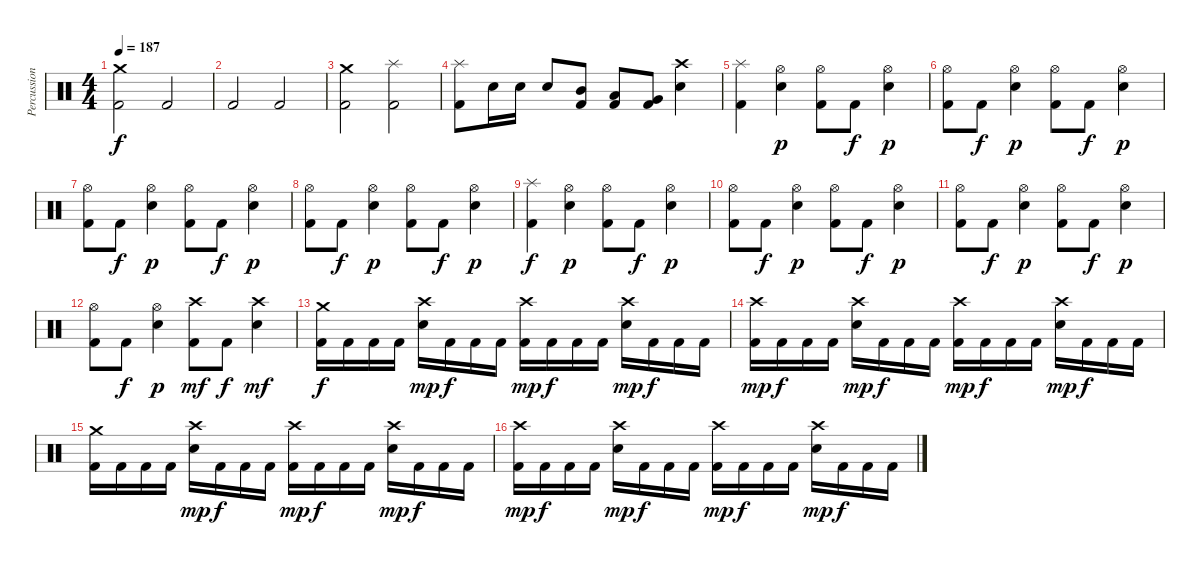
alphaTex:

\track ("Percussion" "Percussion") {instrument percussion}
\staff {score}
\articulation defaults
\ts (4 4)
\tempo 187
\clef neutral
\ks c
("Crash medium (hit)" "Kick (hit) 2").2{dy f} "Kick (hit) 2".2 |
"Kick (hit) 2".2 "Kick (hit) 2".2 |
("Crash medium (hit)" "Kick (hit) 2").2 ("Splash (hit)" "Kick (hit) 2").2 |
("Splash (hit)" "Kick (hit) 2").8 "Snare (hit) 2".16 "Snare (hit) 2".16 "Snare (hit) 2".8 ("Mid Tom (hit)" "Kick (hit) 2").8 ("Low Tom (hit)" "Kick (hit) 2").8 ("Very Low Tom (hit)" "Kick (hit) 2").8 ("Crash high (hit)" "Snare (hit) 2").4 |
("Splash (hit)" "Kick (hit) 2").4 ("Hi-Hat (open)" "Snare (hit) 2").4{dy p} ("Hi-Hat (open)" "Kick (hit) 2").8 "Kick (hit) 2".8{dy f} ("Hi-Hat (open)" "Snare (hit) 2").4{dy p} |
("Hi-Hat (open)" "Kick (hit) 2").8 "Kick (hit) 2".8{dy f} ("Hi-Hat (open)" "Snare (hit) 2").4{dy p} ("Hi-Hat (open)" "Kick (hit) 2").8 "Kick (hit) 2".8{dy f} ("Hi-Hat (open)" "Snare (hit) 2").4{dy p} |
("Hi-Hat (open)" "Kick (hit) 2").8 "Kick (hit) 2".8{dy f} ("Hi-Hat (open)" "Snare (hit) 2").4{dy p} ("Hi-Hat (open)" "Kick (hit) 2").8 "Kick (hit) 2".8{dy f} ("Hi-Hat (open)" "Snare (hit) 2").4{dy p} |
("Hi-Hat (open)" "Kick (hit) 2").8 "Kick (hit) 2".8{dy f} ("Hi-Hat (open)" "Snare (hit) 2").4{dy p} ("Hi-Hat (open)" "Kick (hit) 2").8 "Kick (hit) 2".8{dy f} ("Hi-Hat (open)" "Snare (hit) 2").4{dy p} |
("Splash (hit)" "Kick (hit) 2").4{dy f} ("Hi-Hat (open)" "Snare (hit) 2").4{dy p} ("Hi-Hat (open)" "Kick (hit) 2").8 "Kick (hit) 2".8{dy f} ("Hi-Hat (open)" "Snare (hit) 2").4{dy p} |
("Hi-Hat (open)" "Kick (hit) 2").8 "Kick (hit) 2".8{dy f} ("Hi-Hat (open)" "Snare (hit) 2").4{dy p} ("Hi-Hat (open)" "Kick (hit) 2").8 "Kick (hit) 2".8{dy f} ("Hi-Hat (open)" "Snare (hit) 2").4{dy p} |
("Hi-Hat (open)" "Kick (hit) 2").8 "Kick (hit) 2".8{dy f} ("Hi-Hat (open)" "Snare (hit) 2").4{dy p} ("Hi-Hat (open)" "Kick (hit) 2").8 "Kick (hit) 2".8{dy f} ("Hi-Hat (open)" "Snare (hit) 2").4{dy p} |
("Hi-Hat (open)" "Kick (hit) 2").8 "Kick (hit) 2".8{dy f} ("Hi-Hat (open)" "Snare (hit) 2").4{dy p} ("Crash high (hit)" "Kick (hit) 2").8{dy mf} "Kick (hit) 2".8{dy f} ("Crash high (hit)" "Snare (hit) 2").4{dy mf} |
("Crash medium (hit)" "Kick (hit) 2").16{dy f} "Kick (hit) 2".16 "Kick (hit) 2".16 "Kick (hit) 2".16 ("Crash high (hit)" "Snare (hit) 2").16{dy mp} "Kick (hit) 2".16{dy f} "Kick (hit) 2".16 "Kick (hit) 2".16 ("Crash high (hit)" "Kick (hit) 2").16{dy mp} "Kick (hit) 2".16{dy f} "Kick (hit) 2".16 "Kick (hit) 2".16 ("Crash high (hit)" "Snare (hit) 2").16{dy mp} "Kick (hit) 2".16{dy f} "Kick (hit) 2".16 "Kick (hit) 2".16 |
("Crash high (hit)" "Kick (hit) 2").16{dy mp} "Kick (hit) 2".16{dy f} "Kick (hit) 2".16 "Kick (hit) 2".16 ("Crash high (hit)" "Snare (hit) 2").16{dy mp} "Kick (hit) 2".16{dy f} "Kick (hit) 2".16 "Kick (hit) 2".16 ("Crash high (hit)" "Kick (hit) 2").16{dy mp} "Kick (hit) 2".16{dy f} "Kick (hit) 2".16 "Kick (hit) 2".16 ("Crash high (hit)" "Snare (hit) 2").16{dy mp} "Kick (hit) 2".16{dy f} "Kick (hit) 2".16 "Kick (hit) 2".16 |
("Crash medium (hit)" "Kick (hit) 2").16 "Kick (hit) 2".16 "Kick (hit) 2".16 "Kick (hit) 2".16 ("Crash high (hit)" "Snare (hit) 2").16{dy mp} "Kick (hit) 2".16{dy f} "Kick (hit) 2".16 "Kick (hit) 2".16 ("Crash high (hit)" "Kick (hit) 2").16{dy mp} "Kick (hit) 2".16{dy f} "Kick (hit) 2".16 "Kick (hit) 2".16 ("Crash high (hit)" "Snare (hit) 2").16{dy mp} "Kick (hit) 2".16{dy f} "Kick (hit) 2".16 "Kick (hit) 2".16 |
("Crash high (hit)" "Kick (hit) 2").16{dy mp} "Kick (hit) 2".16{dy f} "Kick (hit) 2".16 "Kick (hit) 2".16 ("Crash high (hit)" "Snare (hit) 2").16{dy mp} "Kick (hit) 2".16{dy f} "Kick (hit) 2".16 "Kick (hit) 2".16 ("Crash high (hit)" "Kick (hit) 2").16{dy mp} "Kick (hit) 2".16{dy f} "Kick (hit) 2".16 "Kick (hit) 2".16 ("Crash high (hit)" "Snare (hit) 2").16{dy mp} "Kick (hit) 2".16{dy f} "Kick (hit) 2".16 "Kick (hit) 2".16
